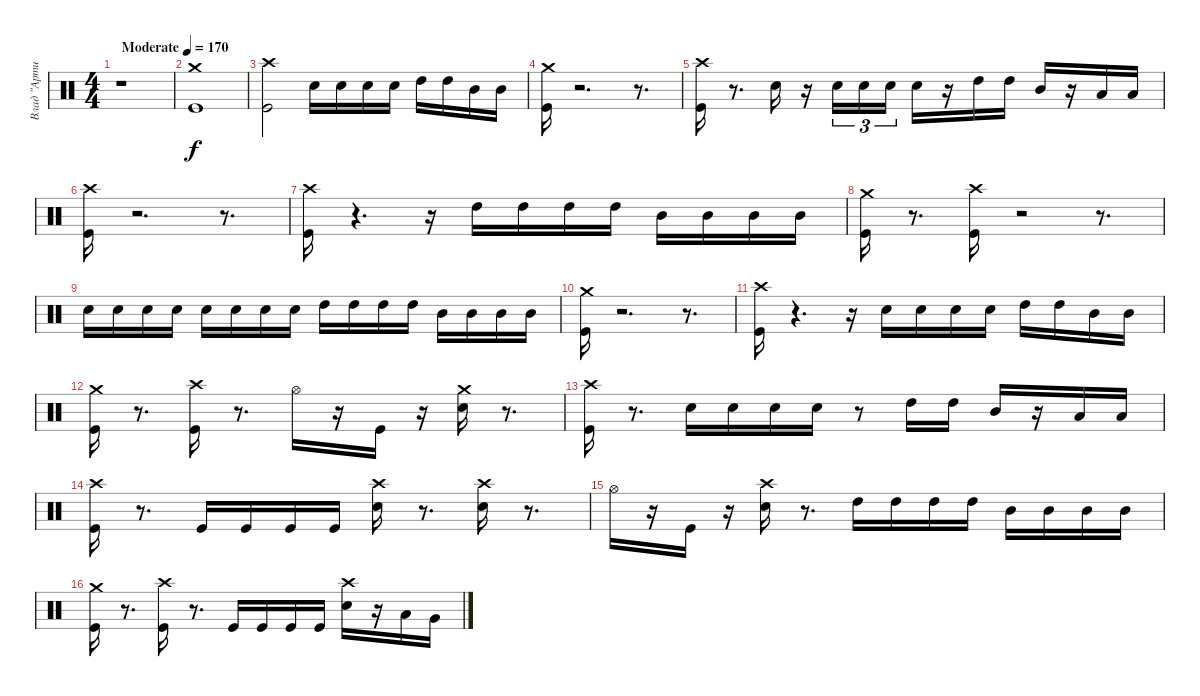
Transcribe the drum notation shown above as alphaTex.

\track ("Влад \"Артист\"" "Влад \"Арти") {instrument percussion}
\staff {score}
\articulation defaults
\ts (4 4)
\tempo (170 "Moderate")
\clef neutral
\ks c
r.1{dy f} |
("Crash medium (hit)" "Kick (hit)").1 |
("Crash high (hit)" "Kick (hit)").2 "Snare (hit) 2".16 "Snare (hit) 2".16 "Snare (hit) 2".16 "Snare (hit) 2".16 "High Tom (hit)".16 "High Tom (hit)".16 "Mid Tom (hit)".16 "Mid Tom (hit)".16 |
("Crash medium (hit)" "Kick (hit)").16 r.2{d} r.8{d} |
("Crash high (hit)" "Kick (hit)").16 r.8{d} "Snare (hit) 2".16 r.16 "Snare (hit) 2".16{tu (3 2)} "Snare (hit) 2".16{tu (3 2)} "Snare (hit) 2".16{tu (3 2)} "Snare (hit) 2".16 r.16 "High Tom (hit)".16 "High Tom (hit)".16 "Mid Tom (hit)".16 r.16 "Low Tom (hit)".16 "Low Tom (hit)".16 |
("Crash high (hit)" "Kick (hit)").16 r.2{d} r.8{d} |
("Kick (hit)" "Crash high (hit)").16 r.4{d} r.16 "High Tom (hit)".16 "High Tom (hit)".16 "High Tom (hit)".16 "High Tom (hit)".16 "Mid Tom (hit)".16 "Mid Tom (hit)".16 "Mid Tom (hit)".16 "Mid Tom (hit)".16 |
("Crash medium (hit)" "Kick (hit)").16 r.8{d} ("Crash high (hit)" "Kick (hit)").16 r.2 r.8{d} |
"Snare (hit) 2".16 "Snare (hit) 2".16 "Snare (hit) 2".16 "Snare (hit) 2".16 "Snare (hit) 2".16 "Snare (hit) 2".16 "Snare (hit) 2".16 "Snare (hit) 2".16 "High Tom (hit)".16 "High Tom (hit)".16 "High Tom (hit)".16 "High Tom (hit)".16 "Mid Tom (hit)".16 "Mid Tom (hit)".16 "Mid Tom (hit)".16 "Mid Tom (hit)".16 |
("Crash medium (hit)" "Kick (hit)").16 r.2{d} r.8{d} |
("Crash high (hit)" "Kick (hit)").16 r.4{d} r.16 "Snare (hit) 2".16 "Snare (hit) 2".16 "Snare (hit) 2".16 "Snare (hit) 2".16 "High Tom (hit)".16 "High Tom (hit)".16 "Mid Tom (hit)".16 "Mid Tom (hit)".16 |
("Crash medium (hit)" "Kick (hit)").16 r.8{d} ("Crash high (hit)" "Kick (hit)").16 r.8{d} "Hi-Hat (open)".16 r.16 "Kick (hit)".16 r.16 ("Snare (hit) 2" "Crash medium (hit)").16 r.8{d} |
("Crash high (hit)" "Kick (hit)").16 r.8{d} "Snare (hit) 2".16 "Snare (hit) 2".16 "Snare (hit) 2".16 "Snare (hit) 2".16 r.8 "High Tom (hit)".16 "High Tom (hit)".16 "Mid Tom (hit)".16 r.16 "Low Tom (hit)".16 "Low Tom (hit)".16 |
("Crash high (hit)" "Kick (hit)").16 r.8{d} "Kick (hit)".16 "Kick (hit)".16 "Kick (hit)".16 "Kick (hit)".16 ("Crash high (hit)" "Snare (hit) 2").16 r.8{d} ("Crash high (hit)" "Snare (hit) 2").16 r.8{d} |
"Hi-Hat (open)".16 r.16 "Kick (hit)".16 r.16 ("Snare (hit) 2" "Crash high (hit)").16 r.8{d} "High Tom (hit)".16 "High Tom (hit)".16 "High Tom (hit)".16 "High Tom (hit)".16 "Mid Tom (hit)".16 "Mid Tom (hit)".16 "Mid Tom (hit)".16 "Mid Tom (hit)".16 |
("Crash medium (hit)" "Kick (hit)").16 r.8{d} ("Crash high (hit)" "Kick (hit)").16 r.8{d} "Kick (hit)".16 "Kick (hit)".16 "Kick (hit)".16 "Kick (hit)".16 ("Crash high (hit)" "Snare (hit) 2").16 r.16 "Low Tom (hit)".16 "Very Low Tom (hit)".16
